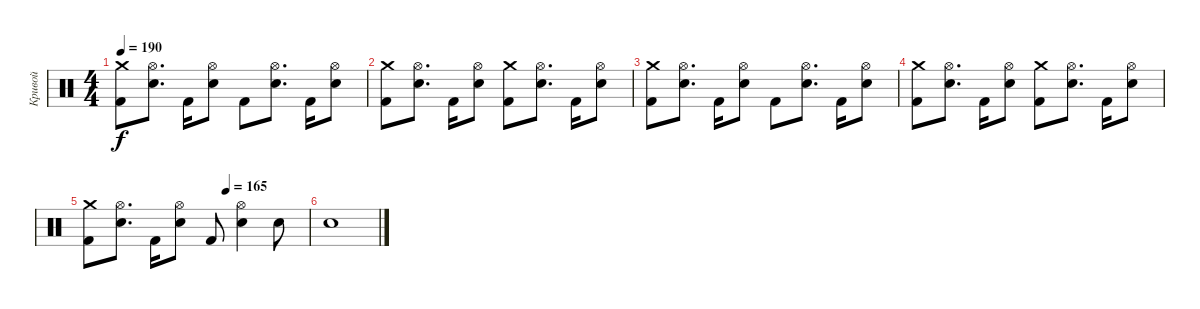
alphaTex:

\track ("Кривой" "Кривой") {instrument percussion}
\staff {score}
\articulation defaults
\ts (4 4)
\tempo 190
\clef neutral
\ks c
("Crash medium (hit)" "Kick (hit) 2").8{dy f} ("Hi-Hat (open)" "Electric Snare (hit)").8{d} "Kick (hit) 2".16 ("Hi-Hat (open)" "Electric Snare (hit)").8 "Kick (hit) 2".8 ("Hi-Hat (open)" "Electric Snare (hit)").8{d} "Kick (hit) 2".16 ("Hi-Hat (open)" "Electric Snare (hit)").8 |
("Crash medium (hit)" "Kick (hit) 2").8 ("Hi-Hat (open)" "Electric Snare (hit)").8{d} "Kick (hit) 2".16 ("Hi-Hat (open)" "Electric Snare (hit)").8 ("Crash medium (hit)" "Kick (hit) 2").8 ("Hi-Hat (open)" "Electric Snare (hit)").8{d} "Kick (hit) 2".16 ("Hi-Hat (open)" "Electric Snare (hit)").8 |
("Crash medium (hit)" "Kick (hit) 2").8 ("Hi-Hat (open)" "Electric Snare (hit)").8{d} "Kick (hit) 2".16 ("Hi-Hat (open)" "Electric Snare (hit)").8 "Kick (hit) 2".8 ("Hi-Hat (open)" "Electric Snare (hit)").8{d} "Kick (hit) 2".16 ("Hi-Hat (open)" "Electric Snare (hit)").8 |
("Crash medium (hit)" "Kick (hit) 2").8 ("Hi-Hat (open)" "Electric Snare (hit)").8{d} "Kick (hit) 2".16 ("Hi-Hat (open)" "Electric Snare (hit)").8 ("Crash medium (hit)" "Kick (hit) 2").8 ("Hi-Hat (open)" "Electric Snare (hit)").8{d} "Kick (hit) 2".16 ("Hi-Hat (open)" "Electric Snare (hit)").8 |
\tempo (165 0.625)
("Crash medium (hit)" "Kick (hit) 2").8 ("Hi-Hat (open)" "Electric Snare (hit)").8{d} "Kick (hit) 2".16 ("Hi-Hat (open)" "Electric Snare (hit)").8 "Kick (hit) 2".8 ("Hi-Hat (open)" "Electric Snare (hit)").4 "Electric Snare (hit)".8 |
"Electric Snare (hit)".1
